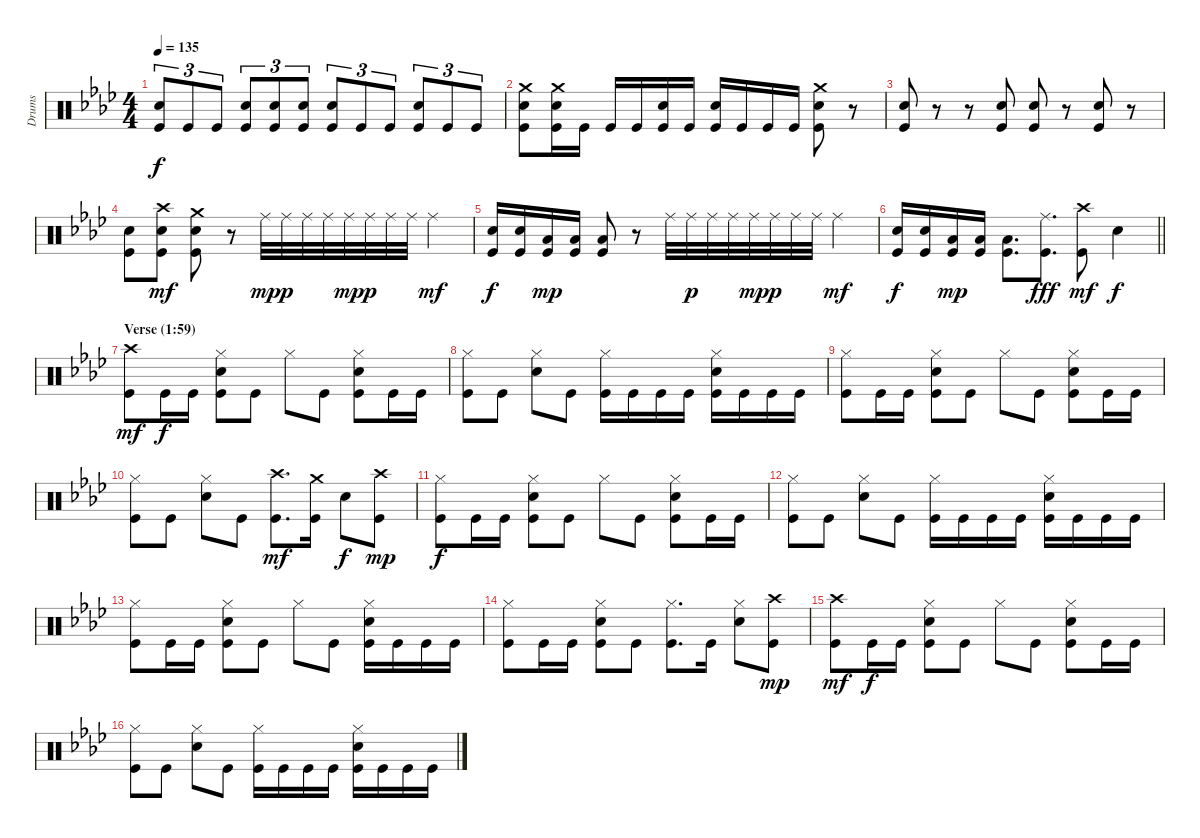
\track ("Drums" "Drums") {instrument percussion}
\staff {score}
\articulation defaults
\ts (4 4)
\tempo 135
\clef neutral
\ks fminor
("Snare (hit) 2" "Kick (hit)").8{tu (3 2) dy f} "Kick (hit)".8{tu (3 2)} "Kick (hit)".8{tu (3 2)} ("Snare (hit) 2" "Kick (hit)").8{tu (3 2)} ("Snare (hit) 2" "Kick (hit)").8{tu (3 2)} ("Snare (hit) 2" "Kick (hit)").8{tu (3 2)} ("Snare (hit) 2" "Kick (hit)").8{tu (3 2)} "Kick (hit)".8{tu (3 2)} "Kick (hit)".8{tu (3 2)} ("Snare (hit) 2" "Kick (hit)").8{tu (3 2)} "Kick (hit)".8{tu (3 2)} "Kick (hit)".8{tu (3 2)} |
("Crash medium (hit)" "Snare (hit) 2" "Kick (hit)").8 ("Crash medium (hit)" "Snare (hit) 2" "Kick (hit)").16 "Kick (hit)".16 "Kick (hit)".16 "Kick (hit)".16 ("Snare (hit) 2" "Kick (hit)").16 "Kick (hit)".16 ("Snare (hit) 2" "Kick (hit)").16 "Kick (hit)".16 "Kick (hit)".16 "Kick (hit)".16 ("Crash medium (hit)" "Snare (hit) 2" "Kick (hit)").8 r.8 |
("Snare (hit) 2" "Kick (hit)").8 r.8 r.8 ("Snare (hit) 2" "Kick (hit)").8 ("Snare (hit) 2" "Kick (hit)").8 r.8 ("Snare (hit) 2" "Kick (hit)").8 r.8 |
("Snare (hit) 2" "Kick (hit)").8 ("Crash high (hit)" "Snare (hit) 2" "Kick (hit)").8{dy mf} ("Crash medium (hit)" "Snare (hit) 2" "Kick (hit)").8 r.8 "Ride (middle)".32{dy mp} "Ride (middle)".32{dy p} "Ride (middle)".32 "Ride (middle)".32 "Ride (middle)".32{dy mp} "Ride (middle)".32{dy p} "Ride (middle)".32 "Ride (middle)".32 "Ride (middle)".4{dy mf} |
("Snare (hit) 2" "Kick (hit)").16{dy f} ("Snare (hit) 2" "Kick (hit)").16 ("Low Floor Tom (hit)" "Kick (hit)").16{dy mp} ("Low Floor Tom (hit)" "Kick (hit)").16 ("Low Floor Tom (hit)" "Kick (hit)").8 r.8 "Ride (middle)".32 "Ride (middle)".32{dy p} "Ride (middle)".32 "Ride (middle)".32 "Ride (middle)".32{dy mp} "Ride (middle)".32{dy p} "Ride (middle)".32 "Ride (middle)".32 "Ride (middle)".4{dy mf} |
\barLineRight lightlight
("Snare (hit) 2" "Kick (hit)").16{dy f} ("Snare (hit) 2" "Kick (hit)").16 ("Low Floor Tom (hit)" "Kick (hit)").16{dy mp} ("Low Floor Tom (hit)" "Kick (hit)").16 ("Low Floor Tom (hit)" "Kick (hit)").8{d} ("Ride (middle)" "Kick (hit)").8{d dy fff} ("Crash high (hit)" "Kick (hit)").8{dy mf} "Snare (hit) 2".4{dy f} |
\section ("" "Verse (1:59)")
("Crash high (hit)" "Kick (hit)").8{dy mf} "Kick (hit)".16{dy f} "Kick (hit)".16 ("Hi-Hat (closed)" "Snare (hit) 2" "Kick (hit)").8 "Kick (hit)".8 "Hi-Hat (closed)".8 "Kick (hit)".8 ("Hi-Hat (closed)" "Snare (hit) 2" "Kick (hit)").8 "Kick (hit)".16 "Kick (hit)".16 |
("Hi-Hat (closed)" "Kick (hit)").8 "Kick (hit)".8 ("Hi-Hat (closed)" "Snare (hit) 2").8 "Kick (hit)".8 ("Hi-Hat (closed)" "Kick (hit)").16 "Kick (hit)".16 "Kick (hit)".16 "Kick (hit)".16 ("Hi-Hat (closed)" "Snare (hit) 2" "Kick (hit)").16 "Kick (hit)".16 "Kick (hit)".16 "Kick (hit)".16 |
("Hi-Hat (closed)" "Kick (hit)").8 "Kick (hit)".16 "Kick (hit)".16 ("Hi-Hat (closed)" "Snare (hit) 2" "Kick (hit)").8 "Kick (hit)".8 "Hi-Hat (closed)".8 "Kick (hit)".8 ("Hi-Hat (closed)" "Snare (hit) 2" "Kick (hit)").8 "Kick (hit)".16 "Kick (hit)".16 |
("Hi-Hat (closed)" "Kick (hit)").8 "Kick (hit)".8 ("Hi-Hat (closed)" "Snare (hit) 2").8 "Kick (hit)".8 ("Crash high (hit)" "Kick (hit)").8{d dy mf} ("Crash medium (hit)" "Kick (hit)").16 "Snare (hit) 2".8{dy f} ("Crash high (hit)" "Kick (hit)").8{dy mp} |
("Hi-Hat (closed)" "Kick (hit)").8{dy f} "Kick (hit)".16 "Kick (hit)".16 ("Hi-Hat (closed)" "Snare (hit) 2" "Kick (hit)").8 "Kick (hit)".8 "Hi-Hat (closed)".8 "Kick (hit)".8 ("Hi-Hat (closed)" "Snare (hit) 2" "Kick (hit)").8 "Kick (hit)".16 "Kick (hit)".16 |
("Hi-Hat (closed)" "Kick (hit)").8 "Kick (hit)".8 ("Hi-Hat (closed)" "Snare (hit) 2").8 "Kick (hit)".8 ("Hi-Hat (closed)" "Kick (hit)").16 "Kick (hit)".16 "Kick (hit)".16 "Kick (hit)".16 ("Hi-Hat (closed)" "Snare (hit) 2" "Kick (hit)").16 "Kick (hit)".16 "Kick (hit)".16 "Kick (hit)".16 |
("Hi-Hat (closed)" "Kick (hit)").8 "Kick (hit)".16 "Kick (hit)".16 ("Hi-Hat (closed)" "Snare (hit) 2" "Kick (hit)").8 "Kick (hit)".8 "Hi-Hat (closed)".8 "Kick (hit)".8 ("Hi-Hat (closed)" "Snare (hit) 2" "Kick (hit)").16 "Kick (hit)".16 "Kick (hit)".16 "Kick (hit)".16 |
("Hi-Hat (closed)" "Kick (hit)").8 "Kick (hit)".16 "Kick (hit)".16 ("Hi-Hat (closed)" "Snare (hit) 2" "Kick (hit)").8 "Kick (hit)".8 ("Hi-Hat (closed)" "Kick (hit)").8{d} "Kick (hit)".16 ("Hi-Hat (closed)" "Snare (hit) 2").8 ("Crash high (hit)" "Kick (hit)").8{dy mp} |
("Crash high (hit)" "Kick (hit)").8{dy mf} "Kick (hit)".16{dy f} "Kick (hit)".16 ("Hi-Hat (closed)" "Snare (hit) 2" "Kick (hit)").8 "Kick (hit)".8 "Hi-Hat (closed)".8 "Kick (hit)".8 ("Hi-Hat (closed)" "Snare (hit) 2" "Kick (hit)").8 "Kick (hit)".16 "Kick (hit)".16 |
("Hi-Hat (closed)" "Kick (hit)").8 "Kick (hit)".8 ("Hi-Hat (closed)" "Snare (hit) 2").8 "Kick (hit)".8 ("Hi-Hat (closed)" "Kick (hit)").16 "Kick (hit)".16 "Kick (hit)".16 "Kick (hit)".16 ("Hi-Hat (closed)" "Snare (hit) 2" "Kick (hit)").16 "Kick (hit)".16 "Kick (hit)".16 "Kick (hit)".16
